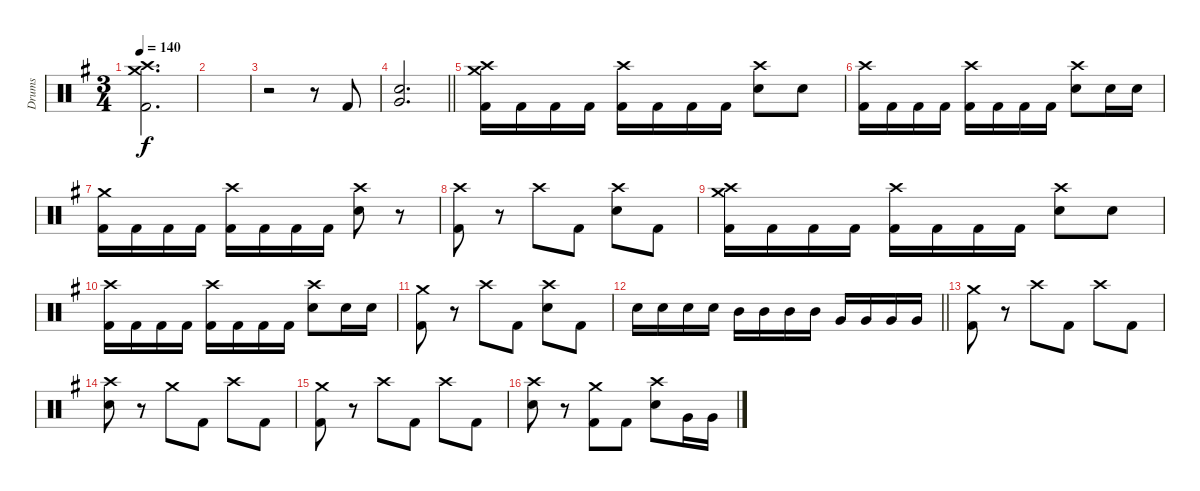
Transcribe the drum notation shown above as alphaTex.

\track ("Drums" "Drums") {instrument percussion}
\staff {score}
\articulation defaults
\ts (3 4)
\tempo 140
\clef neutral
\ks eminor
("Crash medium (hit)" "Crash high (hit)" "Kick (hit) 2").2{d dy f} |
|
r.2 r.8 "Kick (hit) 2".8 |
\barLineRight lightlight
("Very Low Tom (hit)" "Snare (hit) 2").2{d} |
("Crash medium (hit)" "Crash high (hit)" "Kick (hit) 2").16 "Kick (hit) 2".16 "Kick (hit) 2".16 "Kick (hit) 2".16 ("Crash high (hit)" "Kick (hit) 2").16 "Kick (hit) 2".16 "Kick (hit) 2".16 "Kick (hit) 2".16 ("Crash high (hit)" "Snare (hit) 2").8 "Snare (hit) 2".8 |
("Crash high (hit)" "Kick (hit) 2").16 "Kick (hit) 2".16 "Kick (hit) 2".16 "Kick (hit) 2".16 ("Crash high (hit)" "Kick (hit) 2").16 "Kick (hit) 2".16 "Kick (hit) 2".16 "Kick (hit) 2".16 ("Crash high (hit)" "Snare (hit) 2").8 "Snare (hit) 2".16 "Snare (hit) 2".16 |
("Crash medium (hit)" "Kick (hit) 2").16 "Kick (hit) 2".16 "Kick (hit) 2".16 "Kick (hit) 2".16 ("Crash high (hit)" "Kick (hit) 2").16 "Kick (hit) 2".16 "Kick (hit) 2".16 "Kick (hit) 2".16 ("Crash high (hit)" "Snare (hit) 2").8 r.8 |
("Crash high (hit)" "Kick (hit) 2").8 r.8 "Crash high (hit)".8 "Kick (hit) 2".8 ("Crash high (hit)" "Snare (hit) 2").8 "Kick (hit) 2".8 |
("Crash medium (hit)" "Crash high (hit)" "Kick (hit) 2").16 "Kick (hit) 2".16 "Kick (hit) 2".16 "Kick (hit) 2".16 ("Crash high (hit)" "Kick (hit) 2").16 "Kick (hit) 2".16 "Kick (hit) 2".16 "Kick (hit) 2".16 ("Crash high (hit)" "Snare (hit) 2").8 "Snare (hit) 2".8 |
("Crash high (hit)" "Kick (hit) 2").16 "Kick (hit) 2".16 "Kick (hit) 2".16 "Kick (hit) 2".16 ("Crash high (hit)" "Kick (hit) 2").16 "Kick (hit) 2".16 "Kick (hit) 2".16 "Kick (hit) 2".16 ("Crash high (hit)" "Snare (hit) 2").8 "Snare (hit) 2".16 "Snare (hit) 2".16 |
("Crash medium (hit)" "Kick (hit) 2").8 r.8 "Crash high (hit)".8 "Kick (hit) 2".8 ("Crash high (hit)" "Snare (hit) 2").8 "Kick (hit) 2".8 |
\barLineRight lightlight "Snare (hit) 2".16 "Snare (hit) 2".16 "Snare (hit) 2".16 "Snare (hit) 2".16 "Mid Tom (hit)".16 "Mid Tom (hit)".16 "Mid Tom (hit)".16 "Mid Tom (hit)".16 "Very Low Tom (hit)".16 "Very Low Tom (hit)".16 "Very Low Tom (hit)".16 "Very Low Tom (hit)".16
|
("Crash medium (hit)" "Kick (hit) 2").8 r.8 "Crash high (hit)".8 "Kick (hit) 2".8 "Crash high (hit)".8 "Kick (hit) 2".8 |
("Crash high (hit)" "Snare (hit) 2").8 r.8 "Crash medium (hit)".8 "Kick (hit) 2".8 "Crash high (hit)".8 "Kick (hit) 2".8 |
("Crash medium (hit)" "Kick (hit) 2").8 r.8 "Crash high (hit)".8 "Kick (hit) 2".8 "Crash high (hit)".8 "Kick (hit) 2".8 |
("Crash high (hit)" "Snare (hit) 2").8 r.8 ("Crash medium (hit)" "Kick (hit) 2").8 "Kick (hit) 2".8 ("Crash high (hit)" "Snare (hit) 2").8 "Very Low Tom (hit)".16 "Very Low Tom (hit)".16
